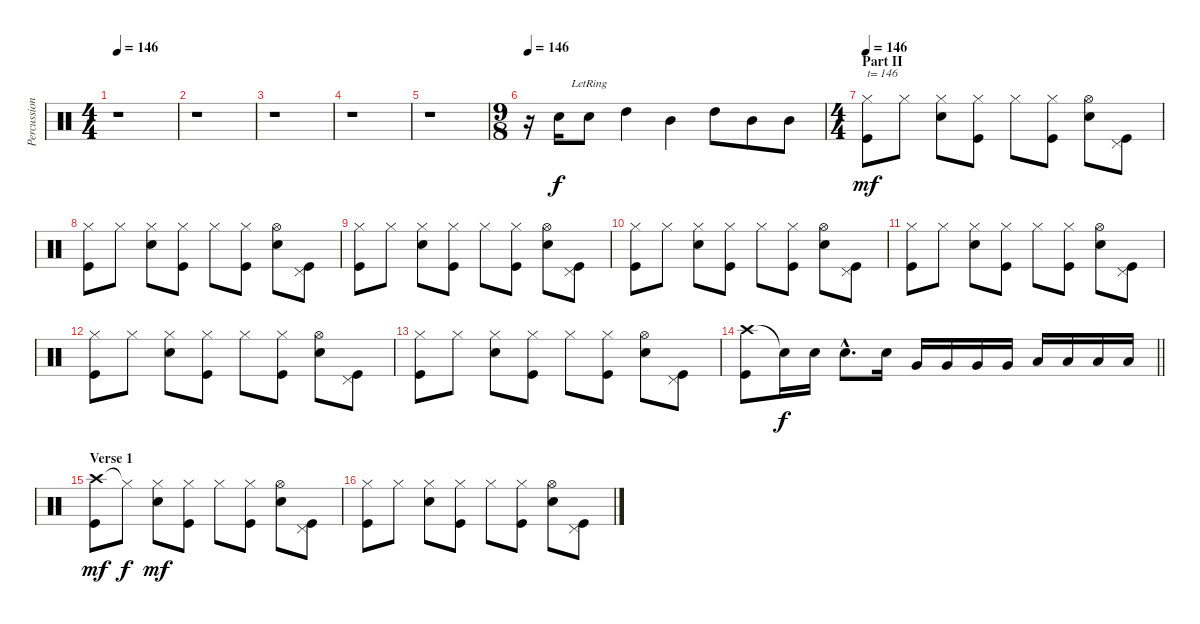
\track ("Percussion" "Percussion") {instrument percussion}
\staff {score}
\articulation defaults
\ts (4 4)
\tempo 146
\clef neutral
\ks c
r.1{dy f} |
r.1 |
r.1 |
r.1 |
r.1 |
\ts (9 8)
\tempo 146
r.16 "Snare (hit) 2".16 "Snare (hit) 2"{lr}.8 "High Tom (hit)".4 "Mid Tom (hit)".4 "High Tom (hit)".8 "Mid Tom (hit)".8 "Mid Tom (hit)".8 |
\ts (4 4)
\section ("" "Part II")
\tempo 146
("Hi-Hat (closed)" "Kick (hit)").8{txt "t= 146" dy mf} "Hi-Hat (closed)".8 ("Hi-Hat (closed)" "Snare (hit) 2").8 ("Hi-Hat (closed)" "Kick (hit)").8 "Hi-Hat (closed)".8 ("Hi-Hat (closed)" "Kick (hit)").8 ("Hi-Hat (open)" "Snare (hit) 2").8 ("Pedal Hi-Hat (hit)" "Kick (hit)").8 |
("Hi-Hat (closed)" "Kick (hit)").8 "Hi-Hat (closed)".8 ("Hi-Hat (closed)" "Snare (hit) 2").8 ("Hi-Hat (closed)" "Kick (hit)").8 "Hi-Hat (closed)".8 ("Hi-Hat (closed)" "Kick (hit)").8 ("Hi-Hat (open)" "Snare (hit) 2").8 ("Pedal Hi-Hat (hit)" "Kick (hit)").8 |
("Hi-Hat (closed)" "Kick (hit)").8 "Hi-Hat (closed)".8 ("Hi-Hat (closed)" "Snare (hit) 2").8 ("Hi-Hat (closed)" "Kick (hit)").8 "Hi-Hat (closed)".8 ("Hi-Hat (closed)" "Kick (hit)").8 ("Hi-Hat (open)" "Snare (hit) 2").8 ("Pedal Hi-Hat (hit)" "Kick (hit)").8 |
("Hi-Hat (closed)" "Kick (hit)").8 "Hi-Hat (closed)".8 ("Hi-Hat (closed)" "Snare (hit) 2").8 ("Hi-Hat (closed)" "Kick (hit)").8 "Hi-Hat (closed)".8 ("Hi-Hat (closed)" "Kick (hit)").8 ("Hi-Hat (open)" "Snare (hit) 2").8 ("Pedal Hi-Hat (hit)" "Kick (hit)").8 |
("Hi-Hat (closed)" "Kick (hit)").8 "Hi-Hat (closed)".8 ("Hi-Hat (closed)" "Snare (hit) 2").8 ("Hi-Hat (closed)" "Kick (hit)").8 "Hi-Hat (closed)".8 ("Hi-Hat (closed)" "Kick (hit)").8 ("Hi-Hat (open)" "Snare (hit) 2").8 ("Pedal Hi-Hat (hit)" "Kick (hit)").8 |
("Hi-Hat (closed)" "Kick (hit)").8 "Hi-Hat (closed)".8 ("Hi-Hat (closed)" "Snare (hit) 2").8 ("Hi-Hat (closed)" "Kick (hit)").8 "Hi-Hat (closed)".8 ("Hi-Hat (closed)" "Kick (hit)").8 ("Hi-Hat (open)" "Snare (hit) 2").8 ("Pedal Hi-Hat (hit)" "Kick (hit)").8 |
("Hi-Hat (closed)" "Kick (hit)").8 "Hi-Hat (closed)".8 ("Hi-Hat (closed)" "Snare (hit) 2").8 ("Hi-Hat (closed)" "Kick (hit)").8 "Hi-Hat (closed)".8 ("Hi-Hat (closed)" "Kick (hit)").8 ("Hi-Hat (open)" "Snare (hit) 2").8 ("Pedal Hi-Hat (hit)" "Kick (hit)").8 |
\barLineRight lightlight
("Crash high (hit)" "Kick (hit)").8 "Snare (hit)"{t}.16{dy f} "Snare (hit) 2".16 "Snare (hit) 2"{hac}.8{d} "Snare (hit) 2".16 "Very Low Tom (hit)".16 "Very Low Tom (hit)".16 "Very Low Tom (hit)".16 "Very Low Tom (hit)".16 "Low Floor Tom (hit)".16 "Low Floor Tom (hit)".16 "Low Floor Tom (hit)".16 "Low Floor Tom (hit)".16 |
\section ("" "Verse 1")
("Crash high (hit)" "Kick (hit)").8{dy mf} "Hi-Hat (closed)"{t}.8{dy f} ("Hi-Hat (closed)" "Snare (hit) 2").8{dy mf} ("Hi-Hat (closed)" "Kick (hit)").8 "Hi-Hat (closed)".8 ("Hi-Hat (closed)" "Kick (hit)").8 ("Hi-Hat (open)" "Snare (hit) 2").8 ("Pedal Hi-Hat (hit)" "Kick (hit)").8 |
("Hi-Hat (closed)" "Kick (hit)").8 "Hi-Hat (closed)".8 ("Hi-Hat (closed)" "Snare (hit) 2").8 ("Hi-Hat (closed)" "Kick (hit)").8 "Hi-Hat (closed)".8 ("Hi-Hat (closed)" "Kick (hit)").8 ("Hi-Hat (open)" "Snare (hit) 2").8 ("Pedal Hi-Hat (hit)" "Kick (hit)").8
